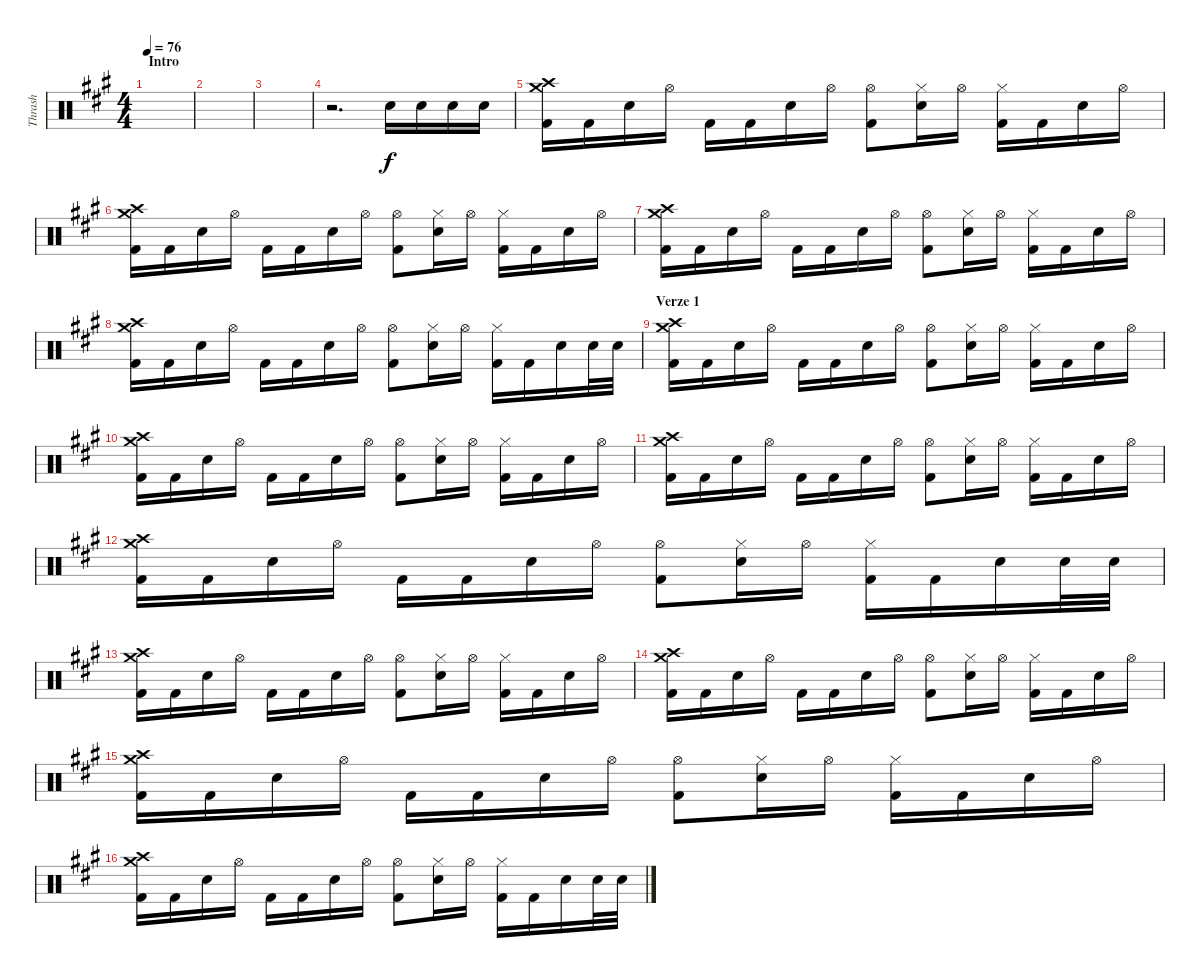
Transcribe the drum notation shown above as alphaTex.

\track ("Thrash" "Thrash") {instrument percussion}
\staff {score}
\articulation defaults
\ts (4 4)
\section ("" "Intro")
\tempo 76
\clef neutral
\ks a
|
|
|
r.2{d} "Snare (hit) 2".16 "Snare (hit) 2".16 "Snare (hit) 2".16 "Snare (hit) 2".16 |
("Crash medium (hit)" "Crash high (hit)" "Kick (hit) 2").16 "Kick (hit) 2".16 "Snare (hit) 2".16 "Hi-Hat (open)".16 "Kick (hit) 2".16 "Kick (hit) 2".16 "Snare (hit) 2".16 "Hi-Hat (open)".16 ("Hi-Hat (open)" "Kick (hit) 2").8 ("Hi-Hat (closed)" "Snare (hit) 2").16 "Hi-Hat (open)".16 ("Hi-Hat (closed)" "Kick (hit) 2").16 "Kick (hit) 2".16 "Snare (hit) 2".16 "Hi-Hat (open)".16 |
("Crash medium (hit)" "Crash high (hit)" "Kick (hit) 2").16 "Kick (hit) 2".16 "Snare (hit) 2".16 "Hi-Hat (open)".16 "Kick (hit) 2".16 "Kick (hit) 2".16 "Snare (hit) 2".16 "Hi-Hat (open)".16 ("Hi-Hat (open)" "Kick (hit) 2").8 ("Hi-Hat (closed)" "Snare (hit) 2").16 "Hi-Hat (open)".16 ("Hi-Hat (closed)" "Kick (hit) 2").16 "Kick (hit) 2".16 "Snare (hit) 2".16 "Hi-Hat (open)".16 |
("Crash medium (hit)" "Crash high (hit)" "Kick (hit) 2").16 "Kick (hit) 2".16 "Snare (hit) 2".16 "Hi-Hat (open)".16 "Kick (hit) 2".16 "Kick (hit) 2".16 "Snare (hit) 2".16 "Hi-Hat (open)".16 ("Hi-Hat (open)" "Kick (hit) 2").8 ("Hi-Hat (closed)" "Snare (hit) 2").16 "Hi-Hat (open)".16 ("Hi-Hat (closed)" "Kick (hit) 2").16 "Kick (hit) 2".16 "Snare (hit) 2".16 "Hi-Hat (open)".16 |
("Crash medium (hit)" "Crash high (hit)" "Kick (hit) 2").16 "Kick (hit) 2".16 "Snare (hit) 2".16 "Hi-Hat (open)".16 "Kick (hit) 2".16 "Kick (hit) 2".16 "Snare (hit) 2".16 "Hi-Hat (open)".16 ("Hi-Hat (open)" "Kick (hit) 2").8 ("Hi-Hat (closed)" "Snare (hit) 2").16 "Hi-Hat (open)".16 ("Hi-Hat (closed)" "Kick (hit) 2").16 "Kick (hit) 2".16 "Snare (hit) 2".16 "Snare (hit) 2".32 "Snare (hit) 2".32 |
\section ("" "Verze 1")
("Crash medium (hit)" "Crash high (hit)" "Kick (hit) 2").16 "Kick (hit) 2".16 "Snare (hit) 2".16 "Hi-Hat (open)".16 "Kick (hit) 2".16 "Kick (hit) 2".16 "Snare (hit) 2".16 "Hi-Hat (open)".16 ("Hi-Hat (open)" "Kick (hit) 2").8 ("Hi-Hat (closed)" "Snare (hit) 2").16 "Hi-Hat (open)".16 ("Hi-Hat (closed)" "Kick (hit) 2").16 "Kick (hit) 2".16 "Snare (hit) 2".16 "Hi-Hat (open)".16 |
("Crash medium (hit)" "Crash high (hit)" "Kick (hit) 2").16 "Kick (hit) 2".16 "Snare (hit) 2".16 "Hi-Hat (open)".16 "Kick (hit) 2".16 "Kick (hit) 2".16 "Snare (hit) 2".16 "Hi-Hat (open)".16 ("Hi-Hat (open)" "Kick (hit) 2").8 ("Hi-Hat (closed)" "Snare (hit) 2").16 "Hi-Hat (open)".16 ("Hi-Hat (closed)" "Kick (hit) 2").16 "Kick (hit) 2".16 "Snare (hit) 2".16 "Hi-Hat (open)".16 |
("Crash medium (hit)" "Crash high (hit)" "Kick (hit) 2").16 "Kick (hit) 2".16 "Snare (hit) 2".16 "Hi-Hat (open)".16 "Kick (hit) 2".16 "Kick (hit) 2".16 "Snare (hit) 2".16 "Hi-Hat (open)".16 ("Hi-Hat (open)" "Kick (hit) 2").8 ("Hi-Hat (closed)" "Snare (hit) 2").16 "Hi-Hat (open)".16 ("Hi-Hat (closed)" "Kick (hit) 2").16 "Kick (hit) 2".16 "Snare (hit) 2".16 "Hi-Hat (open)".16 |
("Crash medium (hit)" "Crash high (hit)" "Kick (hit) 2").16 "Kick (hit) 2".16 "Snare (hit) 2".16 "Hi-Hat (open)".16 "Kick (hit) 2".16 "Kick (hit) 2".16 "Snare (hit) 2".16 "Hi-Hat (open)".16 ("Hi-Hat (open)" "Kick (hit) 2").8 ("Hi-Hat (closed)" "Snare (hit) 2").16 "Hi-Hat (open)".16 ("Hi-Hat (closed)" "Kick (hit) 2").16 "Kick (hit) 2".16 "Snare (hit) 2".16 "Snare (hit) 2".32 "Snare (hit) 2".32 |
("Crash medium (hit)" "Crash high (hit)" "Kick (hit) 2").16 "Kick (hit) 2".16 "Snare (hit) 2".16 "Hi-Hat (open)".16 "Kick (hit) 2".16 "Kick (hit) 2".16 "Snare (hit) 2".16 "Hi-Hat (open)".16 ("Hi-Hat (open)" "Kick (hit) 2").8 ("Hi-Hat (closed)" "Snare (hit) 2").16 "Hi-Hat (open)".16 ("Hi-Hat (closed)" "Kick (hit) 2").16 "Kick (hit) 2".16 "Snare (hit) 2".16 "Hi-Hat (open)".16 |
("Crash medium (hit)" "Crash high (hit)" "Kick (hit) 2").16 "Kick (hit) 2".16 "Snare (hit) 2".16 "Hi-Hat (open)".16 "Kick (hit) 2".16 "Kick (hit) 2".16 "Snare (hit) 2".16 "Hi-Hat (open)".16 ("Hi-Hat (open)" "Kick (hit) 2").8 ("Hi-Hat (closed)" "Snare (hit) 2").16 "Hi-Hat (open)".16 ("Hi-Hat (closed)" "Kick (hit) 2").16 "Kick (hit) 2".16 "Snare (hit) 2".16 "Hi-Hat (open)".16 |
("Crash medium (hit)" "Crash high (hit)" "Kick (hit) 2").16 "Kick (hit) 2".16 "Snare (hit) 2".16 "Hi-Hat (open)".16 "Kick (hit) 2".16 "Kick (hit) 2".16 "Snare (hit) 2".16 "Hi-Hat (open)".16 ("Hi-Hat (open)" "Kick (hit) 2").8 ("Hi-Hat (closed)" "Snare (hit) 2").16 "Hi-Hat (open)".16 ("Hi-Hat (closed)" "Kick (hit) 2").16 "Kick (hit) 2".16 "Snare (hit) 2".16 "Hi-Hat (open)".16 |
("Crash medium (hit)" "Crash high (hit)" "Kick (hit) 2").16 "Kick (hit) 2".16 "Snare (hit) 2".16 "Hi-Hat (open)".16 "Kick (hit) 2".16 "Kick (hit) 2".16 "Snare (hit) 2".16 "Hi-Hat (open)".16 ("Hi-Hat (open)" "Kick (hit) 2").8 ("Hi-Hat (closed)" "Snare (hit) 2").16 "Hi-Hat (open)".16 ("Hi-Hat (closed)" "Kick (hit) 2").16 "Kick (hit) 2".16 "Snare (hit) 2".16 "Snare (hit) 2".32 "Snare (hit) 2".32
